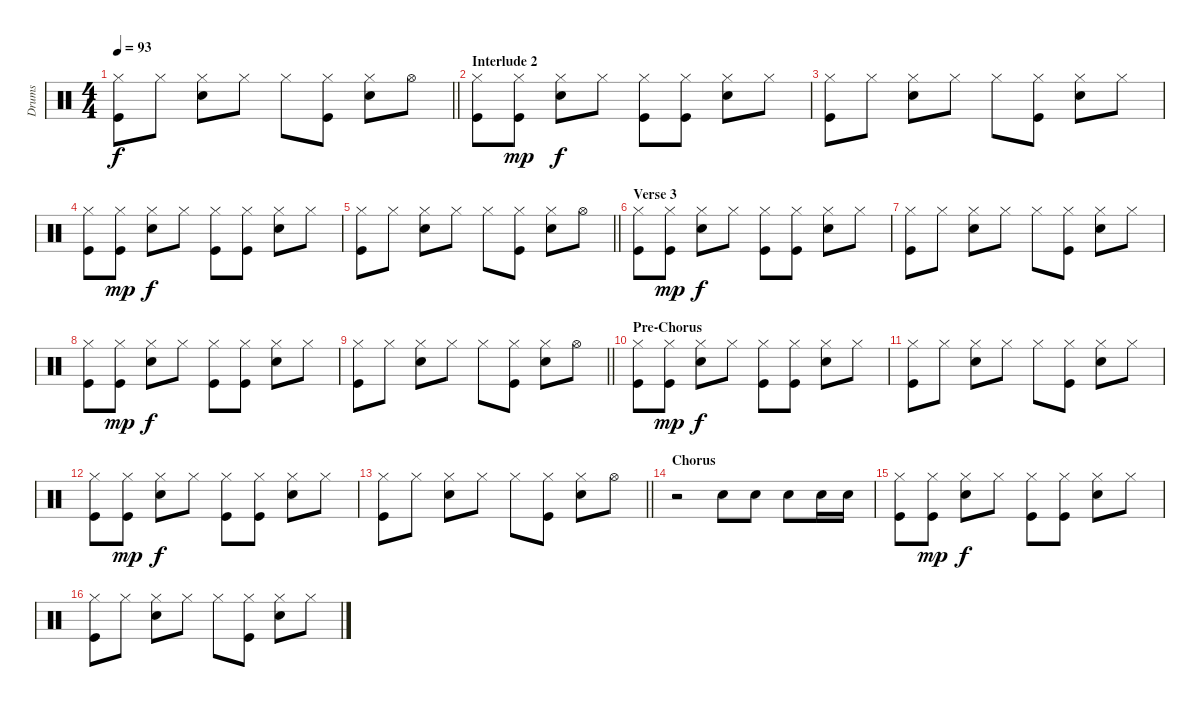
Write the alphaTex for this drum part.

\track ("Drums" "Drums") {instrument percussion}
\staff {score}
\articulation defaults
\ts (4 4)
\tempo 93
\clef neutral
\barLineRight lightlight
\ks c
("Hi-Hat (closed)" "Kick (hit)").8{dy f} "Hi-Hat (closed)".8 ("Hi-Hat (closed)" "Electric Snare (hit)").8 "Hi-Hat (closed)".8 "Hi-Hat (closed)".8 ("Hi-Hat (closed)" "Kick (hit)").8 ("Hi-Hat (closed)" "Electric Snare (hit)").8 "Hi-Hat (open)".8 |
\section ("" "Interlude 2")
("Hi-Hat (closed)" "Kick (hit)").8 ("Hi-Hat (closed)" "Kick (hit)").8{dy mp} ("Hi-Hat (closed)" "Electric Snare (hit)").8{dy f} "Hi-Hat (closed)".8 ("Hi-Hat (closed)" "Kick (hit)").8 ("Hi-Hat (closed)" "Kick (hit)").8 ("Hi-Hat (closed)" "Electric Snare (hit)").8 "Hi-Hat (closed)".8 |
("Hi-Hat (closed)" "Kick (hit)").8 "Hi-Hat (closed)".8 ("Hi-Hat (closed)" "Electric Snare (hit)").8 "Hi-Hat (closed)".8 "Hi-Hat (closed)".8 ("Hi-Hat (closed)" "Kick (hit)").8 ("Hi-Hat (closed)" "Electric Snare (hit)").8 "Hi-Hat (closed)".8 |
("Hi-Hat (closed)" "Kick (hit)").8 ("Hi-Hat (closed)" "Kick (hit)").8{dy mp} ("Hi-Hat (closed)" "Electric Snare (hit)").8{dy f} "Hi-Hat (closed)".8 ("Hi-Hat (closed)" "Kick (hit)").8 ("Hi-Hat (closed)" "Kick (hit)").8 ("Hi-Hat (closed)" "Electric Snare (hit)").8 "Hi-Hat (closed)".8 |
\barLineRight lightlight
("Hi-Hat (closed)" "Kick (hit)").8 "Hi-Hat (closed)".8 ("Hi-Hat (closed)" "Electric Snare (hit)").8 "Hi-Hat (closed)".8 "Hi-Hat (closed)".8 ("Hi-Hat (closed)" "Kick (hit)").8 ("Hi-Hat (closed)" "Electric Snare (hit)").8 "Hi-Hat (open)".8 |
\section ("" "Verse 3")
("Hi-Hat (closed)" "Kick (hit)").8 ("Hi-Hat (closed)" "Kick (hit)").8{dy mp} ("Hi-Hat (closed)" "Electric Snare (hit)").8{dy f} "Hi-Hat (closed)".8 ("Hi-Hat (closed)" "Kick (hit)").8 ("Hi-Hat (closed)" "Kick (hit)").8 ("Hi-Hat (closed)" "Electric Snare (hit)").8 "Hi-Hat (closed)".8 |
("Hi-Hat (closed)" "Kick (hit)").8 "Hi-Hat (closed)".8 ("Hi-Hat (closed)" "Electric Snare (hit)").8 "Hi-Hat (closed)".8 "Hi-Hat (closed)".8 ("Hi-Hat (closed)" "Kick (hit)").8 ("Hi-Hat (closed)" "Electric Snare (hit)").8 "Hi-Hat (closed)".8 |
("Hi-Hat (closed)" "Kick (hit)").8 ("Hi-Hat (closed)" "Kick (hit)").8{dy mp} ("Hi-Hat (closed)" "Electric Snare (hit)").8{dy f} "Hi-Hat (closed)".8 ("Hi-Hat (closed)" "Kick (hit)").8 ("Hi-Hat (closed)" "Kick (hit)").8 ("Hi-Hat (closed)" "Electric Snare (hit)").8 "Hi-Hat (closed)".8 |
\barLineRight lightlight
("Hi-Hat (closed)" "Kick (hit)").8 "Hi-Hat (closed)".8 ("Hi-Hat (closed)" "Electric Snare (hit)").8 "Hi-Hat (closed)".8 "Hi-Hat (closed)".8 ("Hi-Hat (closed)" "Kick (hit)").8 ("Hi-Hat (closed)" "Electric Snare (hit)").8 "Hi-Hat (open)".8 |
\section ("" "Pre-Chorus")
("Hi-Hat (closed)" "Kick (hit)").8 ("Hi-Hat (closed)" "Kick (hit)").8{dy mp} ("Hi-Hat (closed)" "Electric Snare (hit)").8{dy f} "Hi-Hat (closed)".8 ("Hi-Hat (closed)" "Kick (hit)").8 ("Hi-Hat (closed)" "Kick (hit)").8 ("Hi-Hat (closed)" "Electric Snare (hit)").8 "Hi-Hat (closed)".8 |
("Hi-Hat (closed)" "Kick (hit)").8 "Hi-Hat (closed)".8 ("Hi-Hat (closed)" "Electric Snare (hit)").8 "Hi-Hat (closed)".8 "Hi-Hat (closed)".8 ("Hi-Hat (closed)" "Kick (hit)").8 ("Hi-Hat (closed)" "Electric Snare (hit)").8 "Hi-Hat (closed)".8 |
("Hi-Hat (closed)" "Kick (hit)").8 ("Hi-Hat (closed)" "Kick (hit)").8{dy mp} ("Hi-Hat (closed)" "Electric Snare (hit)").8{dy f} "Hi-Hat (closed)".8 ("Hi-Hat (closed)" "Kick (hit)").8 ("Hi-Hat (closed)" "Kick (hit)").8 ("Hi-Hat (closed)" "Electric Snare (hit)").8 "Hi-Hat (closed)".8 |
\barLineRight lightlight
("Hi-Hat (closed)" "Kick (hit)").8 "Hi-Hat (closed)".8 ("Hi-Hat (closed)" "Electric Snare (hit)").8 "Hi-Hat (closed)".8 "Hi-Hat (closed)".8 ("Hi-Hat (closed)" "Kick (hit)").8 ("Hi-Hat (closed)" "Electric Snare (hit)").8 "Hi-Hat (open)".8 |
\section ("" "Chorus")
r.2 "Electric Snare (hit)".8 "Electric Snare (hit)".8 "Electric Snare (hit)".8 "Electric Snare (hit)".16 "Electric Snare (hit)".16 |
("Hi-Hat (closed)" "Kick (hit)").8 ("Hi-Hat (closed)" "Kick (hit)").8{dy mp} ("Hi-Hat (closed)" "Electric Snare (hit)").8{dy f} "Hi-Hat (closed)".8 ("Hi-Hat (closed)" "Kick (hit)").8 ("Hi-Hat (closed)" "Kick (hit)").8 ("Hi-Hat (closed)" "Electric Snare (hit)").8 "Hi-Hat (closed)".8 |
("Hi-Hat (closed)" "Kick (hit)").8 "Hi-Hat (closed)".8 ("Hi-Hat (closed)" "Electric Snare (hit)").8 "Hi-Hat (closed)".8 "Hi-Hat (closed)".8 ("Hi-Hat (closed)" "Kick (hit)").8 ("Hi-Hat (closed)" "Electric Snare (hit)").8 "Hi-Hat (closed)".8
